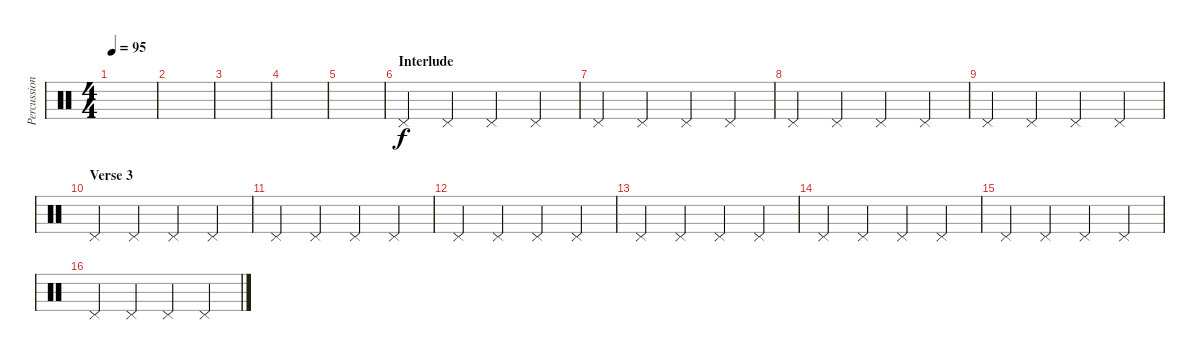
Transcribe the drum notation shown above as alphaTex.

\track ("Percussion" "Percussion") {instrument percussion}
\staff {score}
\articulation defaults
\ts (4 4)
\tempo 95
\clef neutral
\ks c
|
|
|
|
|
\section ("" "Interlude")
"Pedal Hi-Hat (hit)".4{volume 5} "Pedal Hi-Hat (hit)".4 "Pedal Hi-Hat (hit)".4 "Pedal Hi-Hat (hit)".4 |
"Pedal Hi-Hat (hit)".4 "Pedal Hi-Hat (hit)".4 "Pedal Hi-Hat (hit)".4 "Pedal Hi-Hat (hit)".4 |
"Pedal Hi-Hat (hit)".4 "Pedal Hi-Hat (hit)".4 "Pedal Hi-Hat (hit)".4 "Pedal Hi-Hat (hit)".4 |
"Pedal Hi-Hat (hit)".4 "Pedal Hi-Hat (hit)".4 "Pedal Hi-Hat (hit)".4 "Pedal Hi-Hat (hit)".4 |
\section ("" "Verse 3")
"Pedal Hi-Hat (hit)".4 "Pedal Hi-Hat (hit)".4 "Pedal Hi-Hat (hit)".4 "Pedal Hi-Hat (hit)".4 |
"Pedal Hi-Hat (hit)".4 "Pedal Hi-Hat (hit)".4 "Pedal Hi-Hat (hit)".4 "Pedal Hi-Hat (hit)".4 |
"Pedal Hi-Hat (hit)".4 "Pedal Hi-Hat (hit)".4 "Pedal Hi-Hat (hit)".4 "Pedal Hi-Hat (hit)".4 |
"Pedal Hi-Hat (hit)".4 "Pedal Hi-Hat (hit)".4 "Pedal Hi-Hat (hit)".4 "Pedal Hi-Hat (hit)".4 |
"Pedal Hi-Hat (hit)".4 "Pedal Hi-Hat (hit)".4 "Pedal Hi-Hat (hit)".4 "Pedal Hi-Hat (hit)".4 |
"Pedal Hi-Hat (hit)".4 "Pedal Hi-Hat (hit)".4 "Pedal Hi-Hat (hit)".4 "Pedal Hi-Hat (hit)".4 |
"Pedal Hi-Hat (hit)".4 "Pedal Hi-Hat (hit)".4 "Pedal Hi-Hat (hit)".4 "Pedal Hi-Hat (hit)".4
